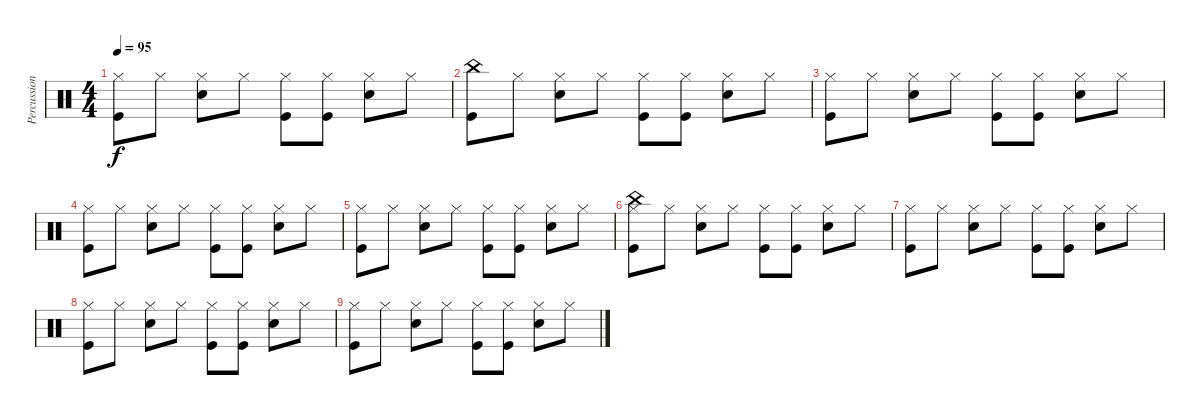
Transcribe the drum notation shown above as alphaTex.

\track ("Percussion" "Percussion") {instrument percussion}
\staff {score}
\articulation defaults
\ts (4 4)
\tempo 95
\clef neutral
\ks c
("Hi-Hat (closed)" "Kick (hit)").8{dy f} "Hi-Hat (closed)".8 ("Hi-Hat (closed)" "Snare (hit) 2").8 "Hi-Hat (closed)".8 ("Hi-Hat (closed)" "Kick (hit)").8 ("Hi-Hat (closed)" "Kick (hit)").8 ("Hi-Hat (closed)" "Snare (hit) 2").8 "Hi-Hat (closed)".8 |
("Kick (hit)" "China (hit)").8 "Hi-Hat (closed)".8 ("Hi-Hat (closed)" "Snare (hit) 2").8 "Hi-Hat (closed)".8 ("Hi-Hat (closed)" "Kick (hit)").8 ("Hi-Hat (closed)" "Kick (hit)").8 ("Hi-Hat (closed)" "Snare (hit) 2").8 "Hi-Hat (closed)".8 |
("Kick (hit)" "Hi-Hat (closed)").8 "Hi-Hat (closed)".8 ("Hi-Hat (closed)" "Snare (hit) 2").8 "Hi-Hat (closed)".8 ("Hi-Hat (closed)" "Kick (hit)").8 ("Hi-Hat (closed)" "Kick (hit)").8 ("Hi-Hat (closed)" "Snare (hit) 2").8 "Hi-Hat (closed)".8 |
("Hi-Hat (closed)" "Kick (hit)").8 "Hi-Hat (closed)".8 ("Hi-Hat (closed)" "Snare (hit) 2").8 "Hi-Hat (closed)".8 ("Hi-Hat (closed)" "Kick (hit)").8 ("Hi-Hat (closed)" "Kick (hit)").8 ("Hi-Hat (closed)" "Snare (hit) 2").8 "Hi-Hat (closed)".8 |
("Hi-Hat (closed)" "Kick (hit)").8 "Hi-Hat (closed)".8 ("Hi-Hat (closed)" "Snare (hit) 2").8 "Hi-Hat (closed)".8 ("Hi-Hat (closed)" "Kick (hit)").8 ("Hi-Hat (closed)" "Kick (hit)").8 ("Hi-Hat (closed)" "Snare (hit) 2").8 "Hi-Hat (closed)".8 |
("Hi-Hat (closed)" "Kick (hit)" "China (hit)").8 "Hi-Hat (closed)".8 ("Hi-Hat (closed)" "Snare (hit) 2").8 "Hi-Hat (closed)".8 ("Hi-Hat (closed)" "Kick (hit)").8 ("Hi-Hat (closed)" "Kick (hit)").8 ("Hi-Hat (closed)" "Snare (hit) 2").8 "Hi-Hat (closed)".8 |
("Hi-Hat (closed)" "Kick (hit)").8 "Hi-Hat (closed)".8 ("Hi-Hat (closed)" "Snare (hit) 2").8 "Hi-Hat (closed)".8 ("Hi-Hat (closed)" "Kick (hit)").8 ("Hi-Hat (closed)" "Kick (hit)").8 ("Hi-Hat (closed)" "Snare (hit) 2").8 "Hi-Hat (closed)".8 |
("Hi-Hat (closed)" "Kick (hit)").8 "Hi-Hat (closed)".8 ("Hi-Hat (closed)" "Snare (hit) 2").8 "Hi-Hat (closed)".8 ("Hi-Hat (closed)" "Kick (hit)").8 ("Hi-Hat (closed)" "Kick (hit)").8 ("Hi-Hat (closed)" "Snare (hit) 2").8 "Hi-Hat (closed)".8 |
("Hi-Hat (closed)" "Kick (hit)").8 "Hi-Hat (closed)".8 ("Hi-Hat (closed)" "Snare (hit) 2").8 "Hi-Hat (closed)".8 ("Hi-Hat (closed)" "Kick (hit)").8 ("Hi-Hat (closed)" "Kick (hit)").8 ("Hi-Hat (closed)" "Snare (hit) 2").8 "Hi-Hat (closed)".8
